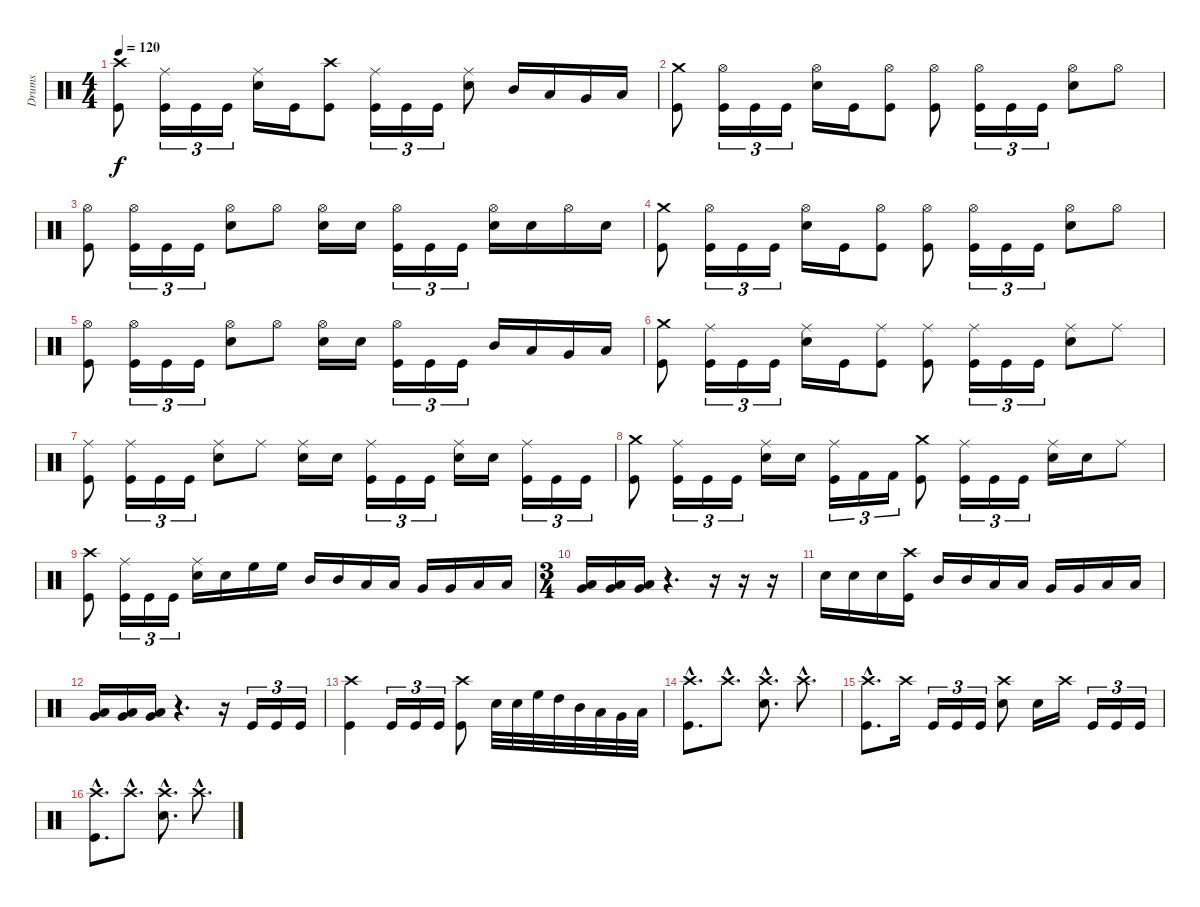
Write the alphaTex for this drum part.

\track ("Drums" "Drums") {instrument percussion}
\staff {score}
\articulation defaults
\ts (4 4)
\tempo 120
\clef neutral
\ks c
("Kick (hit)" "Crash high (hit)").8{dy f} ("Kick (hit)" "Ride (middle)").16{tu (3 2)} "Kick (hit)".16{tu (3 2)} "Kick (hit)".16{tu (3 2)} ("Ride (middle)" "Electric Snare (hit)").16 "Kick (hit)".16 ("Kick (hit)" "Crash high (hit)").8 ("Kick (hit)" "Ride (middle)").16{tu (3 2)} "Kick (hit)".16{tu (3 2)} "Kick (hit)".16{tu (3 2)} ("Ride (middle)" "Electric Snare (hit)").8 "Mid Tom (hit)".16 "Low Tom (hit)".16 "Very Low Tom (hit)".16 "Low Floor Tom (hit)".16 |
("Kick (hit)" "Crash medium (hit)").8 ("Kick (hit)" "Hi-Hat (open)").16{tu (3 2)} "Kick (hit)".16{tu (3 2)} "Kick (hit)".16{tu (3 2)} ("Hi-Hat (open)" "Electric Snare (hit)").16 "Kick (hit)".16 ("Kick (hit)" "Hi-Hat (open)").8 ("Kick (hit)" "Hi-Hat (open)").8 ("Kick (hit)" "Hi-Hat (open)").16{tu (3 2)} "Kick (hit)".16{tu (3 2)} "Kick (hit)".16{tu (3 2)} ("Hi-Hat (open)" "Electric Snare (hit)").8 "Hi-Hat (open)".8 |
("Kick (hit)" "Hi-Hat (open)").8 ("Kick (hit)" "Hi-Hat (open)").16{tu (3 2)} "Kick (hit)".16{tu (3 2)} "Kick (hit)".16{tu (3 2)} ("Hi-Hat (open)" "Electric Snare (hit)").8 "Hi-Hat (open)".8 ("Hi-Hat (open)" "Electric Snare (hit)").16 "Electric Snare (hit)".16 ("Kick (hit)" "Hi-Hat (open)").16{tu (3 2)} "Kick (hit)".16{tu (3 2)} "Kick (hit)".16{tu (3 2)} ("Hi-Hat (open)" "Electric Snare (hit)").16 "Electric Snare (hit)".16 "Hi-Hat (open)".16 "Electric Snare (hit)".16 |
("Kick (hit)" "Crash medium (hit)").8 ("Kick (hit)" "Hi-Hat (open)").16{tu (3 2)} "Kick (hit)".16{tu (3 2)} "Kick (hit)".16{tu (3 2)} ("Hi-Hat (open)" "Electric Snare (hit)").16 "Kick (hit)".16 ("Kick (hit)" "Hi-Hat (open)").8 ("Kick (hit)" "Hi-Hat (open)").8 ("Kick (hit)" "Hi-Hat (open)").16{tu (3 2)} "Kick (hit)".16{tu (3 2)} "Kick (hit)".16{tu (3 2)} ("Hi-Hat (open)" "Electric Snare (hit)").8 "Hi-Hat (open)".8 |
("Kick (hit)" "Hi-Hat (open)").8 ("Kick (hit)" "Hi-Hat (open)").16{tu (3 2)} "Kick (hit)".16{tu (3 2)} "Kick (hit)".16{tu (3 2)} ("Hi-Hat (open)" "Electric Snare (hit)").8 "Hi-Hat (open)".8 ("Hi-Hat (open)" "Electric Snare (hit)").16 "Electric Snare (hit)".16 ("Kick (hit)" "Hi-Hat (open)").16{tu (3 2)} "Kick (hit)".16{tu (3 2)} "Kick (hit)".16{tu (3 2)} "Mid Tom (hit)".16 "Low Tom (hit)".16 "Very Low Tom (hit)".16 "Low Floor Tom (hit)".16 |
("Kick (hit)" "Crash medium (hit)").8 ("Kick (hit)" "Ride (middle)").16{tu (3 2)} "Kick (hit)".16{tu (3 2)} "Kick (hit)".16{tu (3 2)} ("Ride (middle)" "Electric Snare (hit)").16 "Kick (hit)".16 ("Kick (hit)" "Ride (middle)").8 ("Kick (hit)" "Ride (middle)").8 ("Kick (hit)" "Ride (middle)").16{tu (3 2)} "Kick (hit)".16{tu (3 2)} "Kick (hit)".16{tu (3 2)} ("Ride (middle)" "Electric Snare (hit)").8 "Ride (middle)".8 |
("Kick (hit)" "Ride (middle)").8 ("Kick (hit)" "Ride (middle)").16{tu (3 2)} "Kick (hit)".16{tu (3 2)} "Kick (hit)".16{tu (3 2)} ("Ride (middle)" "Electric Snare (hit)").8 "Ride (middle)".8 ("Ride (middle)" "Electric Snare (hit)").16 "Electric Snare (hit)".16 ("Kick (hit)" "Ride (middle)").16{tu (3 2)} "Kick (hit)".16{tu (3 2)} "Kick (hit)".16{tu (3 2)} ("Ride (middle)" "Electric Snare (hit)").16 "Electric Snare (hit)".16 ("Kick (hit)" "Ride (middle)").16{tu (3 2)} "Kick (hit)".16{tu (3 2)} "Kick (hit)".16{tu (3 2)} |
("Kick (hit)" "Crash medium (hit)").8 ("Kick (hit)" "Ride (middle)").16{tu (3 2)} "Kick (hit)".16{tu (3 2)} "Kick (hit)".16{tu (3 2)} ("Ride (middle)" "Electric Snare (hit)").16 "Electric Snare (hit)".16 ("Kick (hit)" "Ride (middle)").16{tu (3 2)} "Kick (hit) 2".16{tu (3 2)} "Kick (hit) 2".16{tu (3 2)} ("Kick (hit)" "Crash medium (hit)").8 ("Kick (hit)" "Ride (middle)").16{tu (3 2)} "Kick (hit)".16{tu (3 2)} "Kick (hit)".16{tu (3 2)} ("Ride (middle)" "Electric Snare (hit)").16 "Electric Snare (hit)".16 "Ride (middle)".8 |
("Kick (hit)" "Crash high (hit)").8 ("Kick (hit)" "Ride (middle)").16{tu (3 2)} "Kick (hit)".16{tu (3 2)} "Kick (hit)".16{tu (3 2)} ("Ride (middle)" "Electric Snare (hit)").16 "Electric Snare (hit)".16 "High Floor Tom (hit)".16 "High Floor Tom (hit)".16 "Mid Tom (hit)".16 "Mid Tom (hit)".16 "Low Tom (hit)".16 "Low Tom (hit)".16 "Very Low Tom (hit)".16 "Very Low Tom (hit)".16 "Low Floor Tom (hit)".16 "Low Floor Tom (hit)".16 |
\ts (3 4)
("Low Floor Tom (hit)" "Very Low Tom (hit)").16 ("Low Floor Tom (hit)" "Very Low Tom (hit)").16 ("Low Floor Tom (hit)" "Very Low Tom (hit)").16 r.4{d} r.16 r.16 r.16 |
"Electric Snare (hit)".16 "Electric Snare (hit)".16 "Electric Snare (hit)".16 ("Kick (hit)" "Crash high (hit)").16 "Mid Tom (hit)".16 "Mid Tom (hit)".16 "Low Tom (hit)".16 "Low Tom (hit)".16 "Very Low Tom (hit)".16 "Very Low Tom (hit)".16 "Low Floor Tom (hit)".16 "Low Floor Tom (hit)".16 |
("Low Floor Tom (hit)" "Very Low Tom (hit)").16 ("Low Floor Tom (hit)" "Very Low Tom (hit)").16 ("Low Floor Tom (hit)" "Very Low Tom (hit)").16 r.4{d} r.16 "Kick (hit)".16{tu (3 2)} "Kick (hit)".16{tu (3 2)} "Kick (hit)".16{tu (3 2)} |
("Kick (hit)" "Crash high (hit)").4 "Kick (hit)".16{tu (3 2)} "Kick (hit)".16{tu (3 2)} "Kick (hit)".16{tu (3 2)} ("Kick (hit)" "Crash high (hit)").8 "Electric Snare (hit)".32 "Electric Snare (hit)".32 "High Floor Tom (hit)".32 "High Tom (hit)".32 "Mid Tom (hit)".32 "Low Tom (hit)".32 "Very Low Tom (hit)".32 "Low Floor Tom (hit)".32 |
("Kick (hit)"{hac} "Crash high (hit)"{hac}).8{d} "Crash high (hit)"{hac}.8{d} ("Electric Snare (hit)"{hac} "Crash high (hit)"{hac}).8{d} "Crash high (hit)"{hac}.8{d} |
("Kick (hit)"{hac} "Crash high (hit)"{hac}).8{d} "Crash high (hit)".16 "Kick (hit)".16{tu (3 2)} "Kick (hit)".16{tu (3 2)} "Kick (hit)".16{tu (3 2)} ("Electric Snare (hit)" "Crash high (hit)").8 "Electric Snare (hit)".16 "Crash high (hit)".16 "Kick (hit)".16{tu (3 2)} "Kick (hit)".16{tu (3 2)} "Kick (hit)".16{tu (3 2)} |
("Kick (hit)"{hac} "Crash high (hit)"{hac}).8{d} "Crash high (hit)"{hac}.8{d} ("Electric Snare (hit)"{hac} "Crash high (hit)"{hac}).8{d} "Crash high (hit)"{hac}.8{d}
